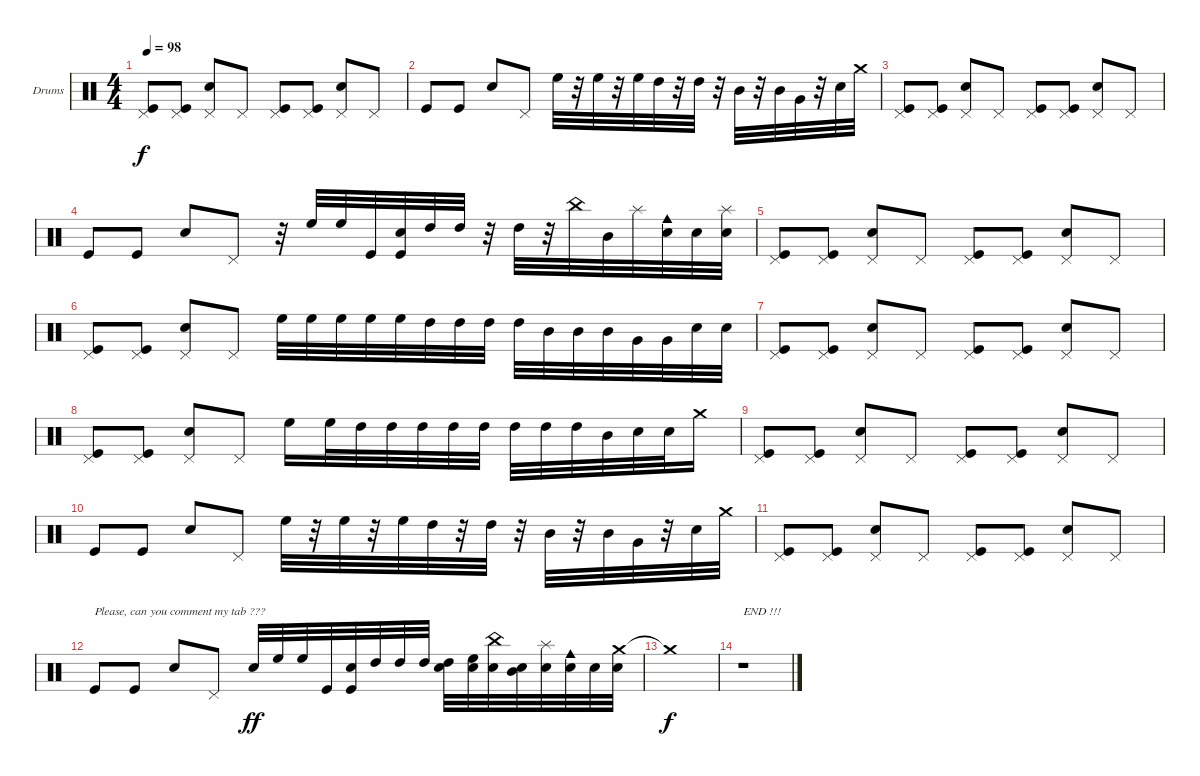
\bracketExtendMode groupsimilarinstruments
\firstSystemTrackNameOrientation horizontal
\otherSystemsTrackNameOrientation horizontal
\track ("Drumkit" "Drums") {instrument percussion}
\staff {score}
\articulation defaults
\ts (4 4)
\tempo 98
\clef neutral
\ks c
("Pedal Hi-Hat (hit)" "Kick (hit)").8{dy f} ("Pedal Hi-Hat (hit)" "Kick (hit)").8 ("Pedal Hi-Hat (hit)" "Snare (hit) 2").8 "Pedal Hi-Hat (hit)".8 ("Pedal Hi-Hat (hit)" "Kick (hit)").8 ("Pedal Hi-Hat (hit)" "Kick (hit)").8 ("Pedal Hi-Hat (hit)" "Snare (hit) 2").8 "Pedal Hi-Hat (hit)".8 |
"Kick (hit)".8 "Kick (hit)".8 "Snare (hit) 2".8 "Pedal Hi-Hat (hit)".8 "High Floor Tom (hit)".32 r.32 "High Floor Tom (hit)".32 r.32 "High Floor Tom (hit)".32 "High Tom (hit)".32 r.32 "High Tom (hit)".32 r.32 "Mid Tom (hit)".32 r.32 "Mid Tom (hit)".32 "Very Low Tom (hit)".32 r.32 "Snare (hit) 2".32 "Crash medium (hit)".32 |
("Pedal Hi-Hat (hit)" "Kick (hit)").8 ("Pedal Hi-Hat (hit)" "Kick (hit)").8 ("Pedal Hi-Hat (hit)" "Snare (hit) 2").8 "Pedal Hi-Hat (hit)".8 ("Pedal Hi-Hat (hit)" "Kick (hit)").8 ("Pedal Hi-Hat (hit)" "Kick (hit)").8 ("Pedal Hi-Hat (hit)" "Snare (hit) 2").8 "Pedal Hi-Hat (hit)".8 |
"Kick (hit)".8 "Kick (hit)".8 "Snare (hit) 2".8 "Pedal Hi-Hat (hit)".8 r.32 "High Floor Tom (hit)".32 "High Floor Tom (hit)".32 "Kick (hit)".32 ("Snare (hit) 2" "Kick (hit)").32 "High Tom (hit)".32 "High Tom (hit)".32 r.32 "High Tom (hit)".32 r.32 "China (hit)".32 "Mid Tom (hit)".32 "Splash (hit)".32 ("Snare (hit) 2" "Cowbell medium (hit)").32 "Snare (hit) 2".32 ("Splash (hit)" "Snare (hit) 2").32 |
("Pedal Hi-Hat (hit)" "Kick (hit)").8 ("Pedal Hi-Hat (hit)" "Kick (hit)").8 ("Pedal Hi-Hat (hit)" "Snare (hit) 2").8 "Pedal Hi-Hat (hit)".8 ("Pedal Hi-Hat (hit)" "Kick (hit)").8 ("Pedal Hi-Hat (hit)" "Kick (hit)").8 ("Pedal Hi-Hat (hit)" "Snare (hit) 2").8 "Pedal Hi-Hat (hit)".8 |
("Pedal Hi-Hat (hit)" "Kick (hit)").8 ("Pedal Hi-Hat (hit)" "Kick (hit)").8 ("Pedal Hi-Hat (hit)" "Snare (hit) 2").8 "Pedal Hi-Hat (hit)".8 "High Floor Tom (hit)".32 "High Floor Tom (hit)".32 "High Floor Tom (hit)".32 "High Floor Tom (hit)".32 "High Floor Tom (hit)".32 "High Tom (hit)".32 "High Tom (hit)".32 "High Tom (hit)".32 "High Tom (hit)".32 "Mid Tom (hit)".32 "Mid Tom (hit)".32 "Mid Tom (hit)".32 "Very Low Tom (hit)".32 "Very Low Tom (hit)".32 "Snare (hit) 2".32 "Snare (hit) 2".32 |
("Pedal Hi-Hat (hit)" "Kick (hit)").8 ("Pedal Hi-Hat (hit)" "Kick (hit)").8 ("Pedal Hi-Hat (hit)" "Snare (hit) 2").8 "Pedal Hi-Hat (hit)".8 ("Pedal Hi-Hat (hit)" "Kick (hit)").8 ("Pedal Hi-Hat (hit)" "Kick (hit)").8 ("Pedal Hi-Hat (hit)" "Snare (hit) 2").8 "Pedal Hi-Hat (hit)".8 |
("Pedal Hi-Hat (hit)" "Kick (hit)").8 ("Pedal Hi-Hat (hit)" "Kick (hit)").8 ("Pedal Hi-Hat (hit)" "Snare (hit) 2").8 "Pedal Hi-Hat (hit)".8 "High Floor Tom (hit)".16 "High Floor Tom (hit)".32 "High Tom (hit)".32 "High Tom (hit)".32 "High Tom (hit)".32 "High Tom (hit)".32 "High Tom (hit)".32 "High Tom (hit)".32 "High Tom (hit)".32 "High Tom (hit)".32 "Mid Tom (hit)".32 "Snare (hit) 2".32 "Snare (hit) 2".32 "Crash medium (hit)".16 |
("Pedal Hi-Hat (hit)" "Kick (hit)").8 ("Pedal Hi-Hat (hit)" "Kick (hit)").8 ("Pedal Hi-Hat (hit)" "Snare (hit) 2").8 "Pedal Hi-Hat (hit)".8 ("Pedal Hi-Hat (hit)" "Kick (hit)").8 ("Pedal Hi-Hat (hit)" "Kick (hit)").8 ("Pedal Hi-Hat (hit)" "Snare (hit) 2").8 "Pedal Hi-Hat (hit)".8 |
"Kick (hit)".8 "Kick (hit)".8 "Snare (hit) 2".8 "Pedal Hi-Hat (hit)".8 "High Floor Tom (hit)".32 r.32 "High Floor Tom (hit)".32 r.32 "High Floor Tom (hit)".32 "High Tom (hit)".32 r.32 "High Tom (hit)".32 r.32 "Mid Tom (hit)".32 r.32 "Mid Tom (hit)".32 "Very Low Tom (hit)".32 r.32 "Snare (hit) 2".32 "Crash medium (hit)".32 |
("Pedal Hi-Hat (hit)" "Kick (hit)").8 ("Pedal Hi-Hat (hit)" "Kick (hit)").8 ("Pedal Hi-Hat (hit)" "Snare (hit) 2").8 "Pedal Hi-Hat (hit)".8 ("Pedal Hi-Hat (hit)" "Kick (hit)").8 ("Pedal Hi-Hat (hit)" "Kick (hit)").8 ("Pedal Hi-Hat (hit)" "Snare (hit) 2").8 "Pedal Hi-Hat (hit)".8 |
"Kick (hit)".8{txt "Please, can you comment my tab ???"} "Kick (hit)".8 "Snare (hit) 2".8 "Pedal Hi-Hat (hit)".8 "Snare (hit) 2".32{dy ff} "High Floor Tom (hit)".32 "High Floor Tom (hit)".32 "Kick (hit)".32 ("Snare (hit) 2" "Kick (hit)").32 "High Tom (hit)".32 "High Tom (hit)".32 "High Tom (hit)".32 ("High Tom (hit)" "Snare (hit) 2").32 ("High Floor Tom (hit)" "Snare (hit) 2").32 ("China (hit)" "Snare (hit) 2").32 ("Mid Tom (hit)" "Snare (hit) 2").32 ("Splash (hit)" "Snare (hit) 2").32 ("Snare (hit) 2" "Cowbell medium (hit)").32 "Snare (hit) 2".32 ("Crash medium (hit)" "Snare (hit) 2").32 |
"Crash medium (hit)"{t}.1{dy f} |
r.1{txt "END !!!"}
